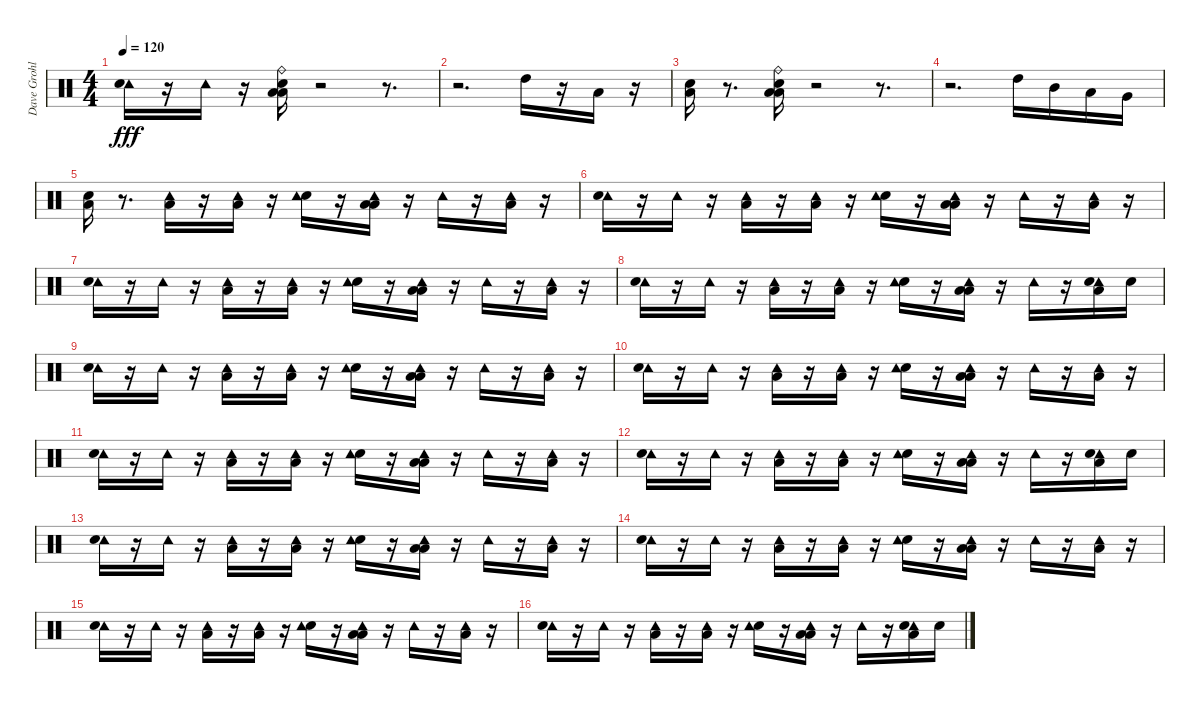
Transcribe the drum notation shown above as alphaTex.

\track ("Dave Grohl " "Dave Grohl") {instrument percussion}
\staff {score}
\articulation defaults
\ts (4 4)
\tempo 120
\clef neutral
\ks c
("Tambourine (hit)" "Snare (hit) 2").16{dy fff} r.16 "Tambourine (hit)".16 r.16 ("Snare (hit) 2" "Ride (bell)" "Low Floor Tom (hit)" "Low Tom (hit)").16 r.2 r.8{d} |
r.2{d} "High Tom (hit)".16 r.16 "Low Tom (hit)".16 r.16 |
("Snare (hit) 2" "Low Floor Tom (hit)").16 r.8{d} ("Snare (hit) 2" "Ride (bell)" "Low Floor Tom (hit)" "Low Tom (hit)").16 r.2 r.8{d} |
r.2{d} "High Tom (hit)".16 "Mid Tom (hit)".16 "Low Tom (hit)".16 "Very Low Tom (hit)".16 |
("Snare (hit) 2" "Low Floor Tom (hit)").16 r.8{d} ("Low Floor Tom (hit)" "Tambourine (hit)").16 r.16 ("Low Floor Tom (hit)" "Tambourine (hit)").16 r.16 ("Snare (hit) 2" "Tambourine (hit)").16 r.16 ("Tambourine (hit)" "Low Floor Tom (hit)" "Low Tom (hit)").16 r.16 "Tambourine (hit)".16 r.16 ("Tambourine (hit)" "Low Floor Tom (hit)").16 r.16 |
("Tambourine (hit)" "Snare (hit) 2").16 r.16 "Tambourine (hit)".16 r.16 ("Low Floor Tom (hit)" "Tambourine (hit)").16 r.16 ("Low Floor Tom (hit)" "Tambourine (hit)").16 r.16 ("Snare (hit) 2" "Tambourine (hit)").16 r.16 ("Tambourine (hit)" "Low Floor Tom (hit)" "Low Tom (hit)").16 r.16 "Tambourine (hit)".16 r.16 ("Tambourine (hit)" "Low Floor Tom (hit)").16 r.16 |
("Tambourine (hit)" "Snare (hit) 2").16 r.16 "Tambourine (hit)".16 r.16 ("Low Floor Tom (hit)" "Tambourine (hit)").16 r.16 ("Low Floor Tom (hit)" "Tambourine (hit)").16 r.16 ("Snare (hit) 2" "Tambourine (hit)").16 r.16 ("Tambourine (hit)" "Low Floor Tom (hit)" "Low Tom (hit)").16 r.16 "Tambourine (hit)".16 r.16 ("Tambourine (hit)" "Low Floor Tom (hit)").16 r.16 |
("Tambourine (hit)" "Snare (hit) 2").16 r.16 "Tambourine (hit)".16 r.16 ("Low Floor Tom (hit)" "Tambourine (hit)").16 r.16 ("Low Floor Tom (hit)" "Tambourine (hit)").16 r.16 ("Snare (hit) 2" "Tambourine (hit)").16 r.16 ("Tambourine (hit)" "Low Floor Tom (hit)" "Low Tom (hit)").16 r.16 "Tambourine (hit)".16 r.16 ("Tambourine (hit)" "Low Floor Tom (hit)" "Snare (hit) 2").16 "Snare (hit) 2".16 |
("Tambourine (hit)" "Snare (hit) 2").16 r.16 "Tambourine (hit)".16 r.16 ("Low Floor Tom (hit)" "Tambourine (hit)").16 r.16 ("Low Floor Tom (hit)" "Tambourine (hit)").16 r.16 ("Snare (hit) 2" "Tambourine (hit)").16 r.16 ("Tambourine (hit)" "Low Floor Tom (hit)" "Low Tom (hit)").16 r.16 "Tambourine (hit)".16 r.16 ("Tambourine (hit)" "Low Floor Tom (hit)").16 r.16 |
("Tambourine (hit)" "Snare (hit) 2").16 r.16 "Tambourine (hit)".16 r.16 ("Low Floor Tom (hit)" "Tambourine (hit)").16 r.16 ("Low Floor Tom (hit)" "Tambourine (hit)").16 r.16 ("Snare (hit) 2" "Tambourine (hit)").16 r.16 ("Tambourine (hit)" "Low Floor Tom (hit)" "Low Tom (hit)").16 r.16 "Tambourine (hit)".16 r.16 ("Tambourine (hit)" "Low Floor Tom (hit)").16 r.16 |
("Tambourine (hit)" "Snare (hit) 2").16 r.16 "Tambourine (hit)".16 r.16 ("Low Floor Tom (hit)" "Tambourine (hit)").16 r.16 ("Low Floor Tom (hit)" "Tambourine (hit)").16 r.16 ("Snare (hit) 2" "Tambourine (hit)").16 r.16 ("Tambourine (hit)" "Low Floor Tom (hit)" "Low Tom (hit)").16 r.16 "Tambourine (hit)".16 r.16 ("Tambourine (hit)" "Low Floor Tom (hit)").16 r.16 |
("Tambourine (hit)" "Snare (hit) 2").16 r.16 "Tambourine (hit)".16 r.16 ("Low Floor Tom (hit)" "Tambourine (hit)").16 r.16 ("Low Floor Tom (hit)" "Tambourine (hit)").16 r.16 ("Snare (hit) 2" "Tambourine (hit)").16 r.16 ("Tambourine (hit)" "Low Floor Tom (hit)" "Low Tom (hit)").16 r.16 "Tambourine (hit)".16 r.16 ("Tambourine (hit)" "Low Floor Tom (hit)" "Snare (hit) 2").16 "Snare (hit) 2".16 |
("Tambourine (hit)" "Snare (hit) 2").16 r.16 "Tambourine (hit)".16 r.16 ("Low Floor Tom (hit)" "Tambourine (hit)").16 r.16 ("Low Floor Tom (hit)" "Tambourine (hit)").16 r.16 ("Snare (hit) 2" "Tambourine (hit)").16 r.16 ("Tambourine (hit)" "Low Floor Tom (hit)" "Low Tom (hit)").16 r.16 "Tambourine (hit)".16 r.16 ("Tambourine (hit)" "Low Floor Tom (hit)").16 r.16 |
("Tambourine (hit)" "Snare (hit) 2").16 r.16 "Tambourine (hit)".16 r.16 ("Low Floor Tom (hit)" "Tambourine (hit)").16 r.16 ("Low Floor Tom (hit)" "Tambourine (hit)").16 r.16 ("Snare (hit) 2" "Tambourine (hit)").16 r.16 ("Tambourine (hit)" "Low Floor Tom (hit)" "Low Tom (hit)").16 r.16 "Tambourine (hit)".16 r.16 ("Tambourine (hit)" "Low Floor Tom (hit)").16 r.16 |
("Tambourine (hit)" "Snare (hit) 2").16 r.16 "Tambourine (hit)".16 r.16 ("Low Floor Tom (hit)" "Tambourine (hit)").16 r.16 ("Low Floor Tom (hit)" "Tambourine (hit)").16 r.16 ("Snare (hit) 2" "Tambourine (hit)").16 r.16 ("Tambourine (hit)" "Low Floor Tom (hit)" "Low Tom (hit)").16 r.16 "Tambourine (hit)".16 r.16 ("Tambourine (hit)" "Low Floor Tom (hit)").16 r.16 |
("Tambourine (hit)" "Snare (hit) 2").16 r.16 "Tambourine (hit)".16 r.16 ("Low Floor Tom (hit)" "Tambourine (hit)").16 r.16 ("Low Floor Tom (hit)" "Tambourine (hit)").16 r.16 ("Snare (hit) 2" "Tambourine (hit)").16 r.16 ("Tambourine (hit)" "Low Floor Tom (hit)" "Low Tom (hit)").16 r.16 "Tambourine (hit)".16 r.16 ("Tambourine (hit)" "Low Floor Tom (hit)" "Snare (hit) 2").16 "Snare (hit) 2".16
